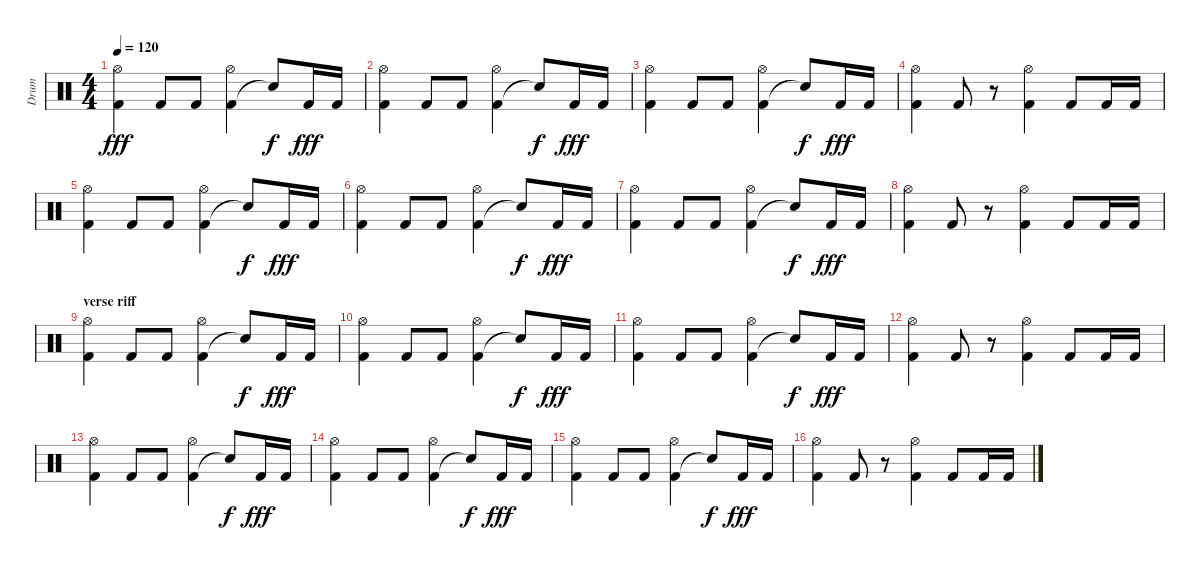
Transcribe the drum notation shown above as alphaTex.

\track ("Drum" "Drum") {instrument percussion}
\staff {score}
\articulation defaults
\ts (4 4)
\tempo 120
\clef neutral
\ks c
("Kick (hit) 2" "Hi-Hat (open)").4{dy fff} "Kick (hit) 2".8 "Kick (hit) 2".8 ("Kick (hit) 2" "Hi-Hat (open)").4 "Snare (hit)"{t}.8{dy f} "Kick (hit) 2".16{dy fff} "Kick (hit) 2".16 |
("Kick (hit) 2" "Hi-Hat (open)").4 "Kick (hit) 2".8 "Kick (hit) 2".8 ("Kick (hit) 2" "Hi-Hat (open)").4 "Snare (hit)"{t}.8{dy f} "Kick (hit) 2".16{dy fff} "Kick (hit) 2".16 |
("Kick (hit) 2" "Hi-Hat (open)").4 "Kick (hit) 2".8 "Kick (hit) 2".8 ("Kick (hit) 2" "Hi-Hat (open)").4 "Snare (hit)"{t}.8{dy f} "Kick (hit) 2".16{dy fff} "Kick (hit) 2".16 |
("Kick (hit) 2" "Hi-Hat (open)").4 "Kick (hit) 2".8 r.8 ("Kick (hit) 2" "Hi-Hat (open)").4 "Kick (hit) 2".8 "Kick (hit) 2".16 "Kick (hit) 2".16 |
("Kick (hit) 2" "Hi-Hat (open)").4 "Kick (hit) 2".8 "Kick (hit) 2".8 ("Kick (hit) 2" "Hi-Hat (open)").4 "Snare (hit)"{t}.8{dy f} "Kick (hit) 2".16{dy fff} "Kick (hit) 2".16 |
("Kick (hit) 2" "Hi-Hat (open)").4 "Kick (hit) 2".8 "Kick (hit) 2".8 ("Kick (hit) 2" "Hi-Hat (open)").4 "Snare (hit)"{t}.8{dy f} "Kick (hit) 2".16{dy fff} "Kick (hit) 2".16 |
("Kick (hit) 2" "Hi-Hat (open)").4 "Kick (hit) 2".8 "Kick (hit) 2".8 ("Kick (hit) 2" "Hi-Hat (open)").4 "Snare (hit)"{t}.8{dy f} "Kick (hit) 2".16{dy fff} "Kick (hit) 2".16 |
("Kick (hit) 2" "Hi-Hat (open)").4 "Kick (hit) 2".8 r.8 ("Kick (hit) 2" "Hi-Hat (open)").4 "Kick (hit) 2".8 "Kick (hit) 2".16 "Kick (hit) 2".16 |
\section ("" "verse riff")
("Kick (hit) 2" "Hi-Hat (open)").4 "Kick (hit) 2".8 "Kick (hit) 2".8 ("Kick (hit) 2" "Hi-Hat (open)").4 "Snare (hit)"{t}.8{dy f} "Kick (hit) 2".16{dy fff} "Kick (hit) 2".16 |
("Kick (hit) 2" "Hi-Hat (open)").4 "Kick (hit) 2".8 "Kick (hit) 2".8 ("Kick (hit) 2" "Hi-Hat (open)").4 "Snare (hit)"{t}.8{dy f} "Kick (hit) 2".16{dy fff} "Kick (hit) 2".16 |
("Kick (hit) 2" "Hi-Hat (open)").4 "Kick (hit) 2".8 "Kick (hit) 2".8 ("Kick (hit) 2" "Hi-Hat (open)").4 "Snare (hit)"{t}.8{dy f} "Kick (hit) 2".16{dy fff} "Kick (hit) 2".16 |
("Kick (hit) 2" "Hi-Hat (open)").4 "Kick (hit) 2".8 r.8 ("Kick (hit) 2" "Hi-Hat (open)").4 "Kick (hit) 2".8 "Kick (hit) 2".16 "Kick (hit) 2".16 |
("Kick (hit) 2" "Hi-Hat (open)").4 "Kick (hit) 2".8 "Kick (hit) 2".8 ("Kick (hit) 2" "Hi-Hat (open)").4 "Snare (hit)"{t}.8{dy f} "Kick (hit) 2".16{dy fff} "Kick (hit) 2".16 |
("Kick (hit) 2" "Hi-Hat (open)").4 "Kick (hit) 2".8 "Kick (hit) 2".8 ("Kick (hit) 2" "Hi-Hat (open)").4 "Snare (hit)"{t}.8{dy f} "Kick (hit) 2".16{dy fff} "Kick (hit) 2".16 |
("Kick (hit) 2" "Hi-Hat (open)").4 "Kick (hit) 2".8 "Kick (hit) 2".8 ("Kick (hit) 2" "Hi-Hat (open)").4 "Snare (hit)"{t}.8{dy f} "Kick (hit) 2".16{dy fff} "Kick (hit) 2".16 |
("Kick (hit) 2" "Hi-Hat (open)").4 "Kick (hit) 2".8 r.8 ("Kick (hit) 2" "Hi-Hat (open)").4 "Kick (hit) 2".8 "Kick (hit) 2".16 "Kick (hit) 2".16
